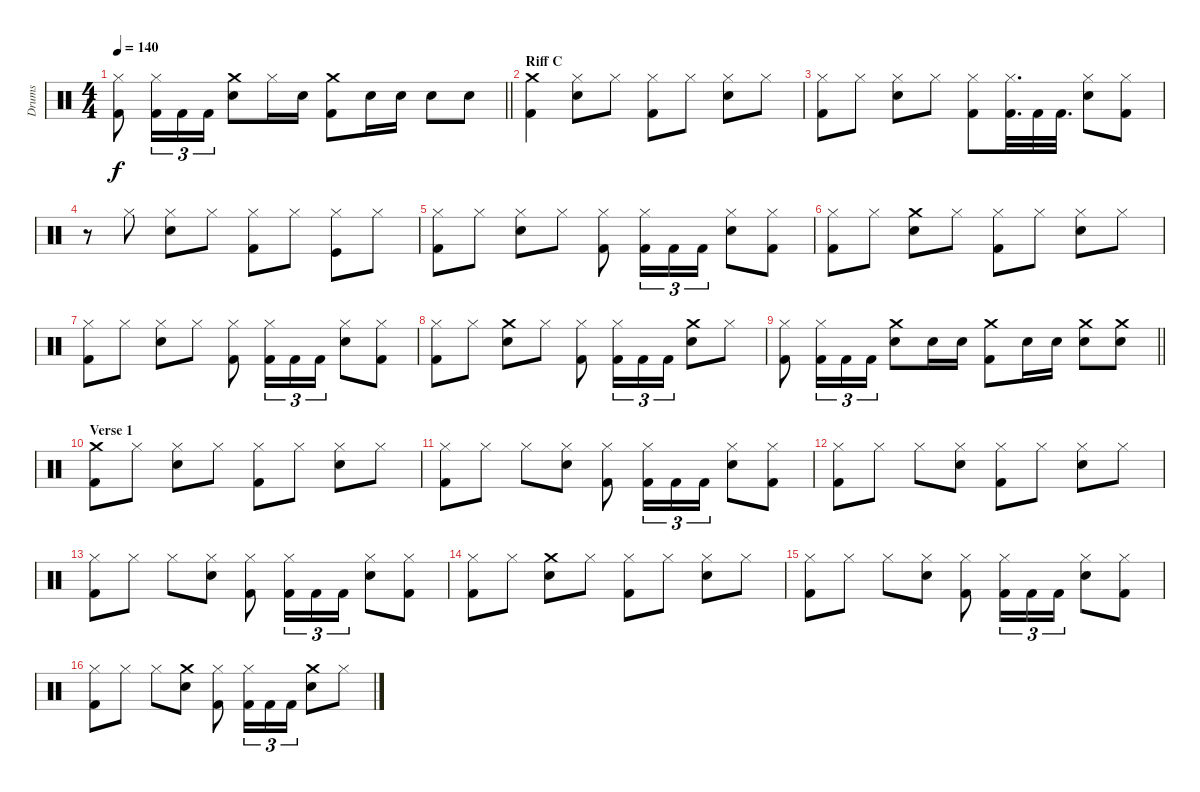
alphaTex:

\track ("Drums" "Drums") {instrument percussion}
\staff {score}
\articulation defaults
\ts (4 4)
\tempo 140
\clef neutral
\barLineRight lightlight
\ks c
("Hi-Hat (closed)" "Kick (hit) 2").8{dy f} ("Hi-Hat (closed)" "Kick (hit) 2").16{tu (3 2)} "Kick (hit) 2".16{tu (3 2)} "Kick (hit) 2".16{tu (3 2)} ("Snare (hit) 2" "Crash medium (hit)").8 "Hi-Hat (closed)".16 "Snare (hit) 2".16 ("Kick (hit) 2" "Crash medium (hit)").8 "Snare (hit) 2".16 "Snare (hit) 2".16 "Snare (hit) 2".8 "Snare (hit) 2".8 |
\section ("" "Riff C")
("Kick (hit) 2" "Crash medium (hit)").4 ("Snare (hit) 2" "Hi-Hat (closed)").8 "Hi-Hat (closed)".8 ("Hi-Hat (closed)" "Kick (hit) 2").8 "Hi-Hat (closed)".8 ("Snare (hit) 2" "Hi-Hat (closed)").8 "Hi-Hat (closed)".8 |
("Hi-Hat (closed)" "Kick (hit) 2").8 "Hi-Hat (closed)".8 ("Snare (hit) 2" "Hi-Hat (closed)").8 "Hi-Hat (closed)".8 ("Kick (hit) 2" "Hi-Hat (closed)").8 ("Kick (hit) 2" "Hi-Hat (closed)").32{d} "Kick (hit) 2".32 "Kick (hit) 2".32{d} ("Snare (hit) 2" "Hi-Hat (closed)").8 ("Kick (hit) 2" "Hi-Hat (closed)").8 |
r.8 "Hi-Hat (closed)".8 ("Snare (hit) 2" "Hi-Hat (closed)").8 "Hi-Hat (closed)".8 ("Kick (hit) 2" "Hi-Hat (closed)").8 "Hi-Hat (closed)".8 ("Kick (hit)" "Hi-Hat (closed)").8 "Hi-Hat (closed)".8 |
("Hi-Hat (closed)" "Kick (hit) 2").8 "Hi-Hat (closed)".8 ("Snare (hit) 2" "Hi-Hat (closed)").8 "Hi-Hat (closed)".8 ("Kick (hit) 2" "Hi-Hat (closed)").8 ("Kick (hit) 2" "Hi-Hat (closed)").16{tu (3 2)} "Kick (hit) 2".16{tu (3 2)} "Kick (hit) 2".16{tu (3 2)} ("Snare (hit) 2" "Hi-Hat (closed)").8 ("Kick (hit) 2" "Hi-Hat (closed)").8 |
("Hi-Hat (closed)" "Kick (hit) 2").8 "Hi-Hat (closed)".8 ("Crash medium (hit)" "Snare (hit) 2").8 "Hi-Hat (closed)".8 ("Hi-Hat (closed)" "Kick (hit) 2").8 "Hi-Hat (closed)".8 ("Snare (hit) 2" "Hi-Hat (closed)").8 "Hi-Hat (closed)".8 |
("Hi-Hat (closed)" "Kick (hit) 2").8 "Hi-Hat (closed)".8 ("Snare (hit) 2" "Hi-Hat (closed)").8 "Hi-Hat (closed)".8 ("Kick (hit) 2" "Hi-Hat (closed)").8 ("Kick (hit) 2" "Hi-Hat (closed)").16{tu (3 2)} "Kick (hit) 2".16{tu (3 2)} "Kick (hit) 2".16{tu (3 2)} ("Snare (hit) 2" "Hi-Hat (closed)").8 ("Kick (hit) 2" "Hi-Hat (closed)").8 |
("Kick (hit) 2" "Hi-Hat (closed)").8 "Hi-Hat (closed)".8 ("Snare (hit) 2" "Crash medium (hit)").8 "Hi-Hat (closed)".8 ("Kick (hit) 2" "Hi-Hat (closed)").8 ("Kick (hit) 2" "Hi-Hat (closed)").16{tu (3 2)} "Kick (hit) 2".16{tu (3 2)} "Kick (hit) 2".16{tu (3 2)} ("Crash medium (hit)" "Snare (hit) 2").8 "Hi-Hat (closed)".8 |
\barLineRight lightlight
("Hi-Hat (closed)" "Kick (hit) 2").8 ("Hi-Hat (closed)" "Kick (hit) 2").16{tu (3 2)} "Kick (hit) 2".16{tu (3 2)} "Kick (hit) 2".16{tu (3 2)} ("Snare (hit) 2" "Crash medium (hit)").8 "Snare (hit) 2".16 "Snare (hit) 2".16 ("Kick (hit) 2" "Crash medium (hit)").8 "Snare (hit) 2".16 "Snare (hit) 2".16 ("Crash medium (hit)" "Snare (hit) 2").8 ("Crash medium (hit)" "Snare (hit) 2").8 |
\section ("" "Verse 1")
("Kick (hit) 2" "Crash medium (hit)").8 "Hi-Hat (closed)".8 ("Snare (hit) 2" "Hi-Hat (closed)").8 "Hi-Hat (closed)".8 ("Kick (hit) 2" "Hi-Hat (closed)").8 "Hi-Hat (closed)".8 ("Snare (hit) 2" "Hi-Hat (closed)").8 "Hi-Hat (closed)".8 |
("Kick (hit) 2" "Hi-Hat (closed)").8 "Hi-Hat (closed)".8 "Hi-Hat (closed)".8 ("Snare (hit) 2" "Hi-Hat (closed)").8 ("Kick (hit) 2" "Hi-Hat (closed)").8 ("Kick (hit) 2" "Hi-Hat (closed)").16{tu (3 2)} "Kick (hit) 2".16{tu (3 2)} "Kick (hit) 2".16{tu (3 2)} ("Snare (hit) 2" "Hi-Hat (closed)").8 ("Kick (hit) 2" "Hi-Hat (closed)").8 |
("Hi-Hat (closed)" "Kick (hit) 2").8 "Hi-Hat (closed)".8 "Hi-Hat (closed)".8 ("Snare (hit) 2" "Hi-Hat (closed)").8 ("Hi-Hat (closed)" "Kick (hit) 2").8 "Hi-Hat (closed)".8 ("Snare (hit) 2" "Hi-Hat (closed)").8 "Hi-Hat (closed)".8 |
("Kick (hit) 2" "Hi-Hat (closed)").8 "Hi-Hat (closed)".8 "Hi-Hat (closed)".8 ("Snare (hit) 2" "Hi-Hat (closed)").8 ("Kick (hit) 2" "Hi-Hat (closed)").8 ("Kick (hit) 2" "Hi-Hat (closed)").16{tu (3 2)} "Kick (hit) 2".16{tu (3 2)} "Kick (hit) 2".16{tu (3 2)} ("Snare (hit) 2" "Hi-Hat (closed)").8 ("Kick (hit) 2" "Hi-Hat (closed)").8 |
("Hi-Hat (closed)" "Kick (hit) 2").8 "Hi-Hat (closed)".8 ("Crash medium (hit)" "Snare (hit) 2").8 "Hi-Hat (closed)".8 ("Hi-Hat (closed)" "Kick (hit) 2").8 "Hi-Hat (closed)".8 ("Snare (hit) 2" "Hi-Hat (closed)").8 "Hi-Hat (closed)".8 |
("Kick (hit) 2" "Hi-Hat (closed)").8 "Hi-Hat (closed)".8 "Hi-Hat (closed)".8 ("Snare (hit) 2" "Hi-Hat (closed)").8 ("Kick (hit) 2" "Hi-Hat (closed)").8 ("Kick (hit) 2" "Hi-Hat (closed)").16{tu (3 2)} "Kick (hit) 2".16{tu (3 2)} "Kick (hit) 2".16{tu (3 2)} ("Snare (hit) 2" "Hi-Hat (closed)").8 ("Kick (hit) 2" "Hi-Hat (closed)").8 |
("Kick (hit) 2" "Hi-Hat (closed)").8 "Hi-Hat (closed)".8 "Hi-Hat (closed)".8 ("Crash medium (hit)" "Snare (hit) 2").8 ("Kick (hit) 2" "Hi-Hat (closed)").8 ("Kick (hit) 2" "Hi-Hat (closed)").16{tu (3 2)} "Kick (hit) 2".16{tu (3 2)} "Kick (hit) 2".16{tu (3 2)} ("Crash medium (hit)" "Snare (hit) 2").8 "Hi-Hat (closed)".8
